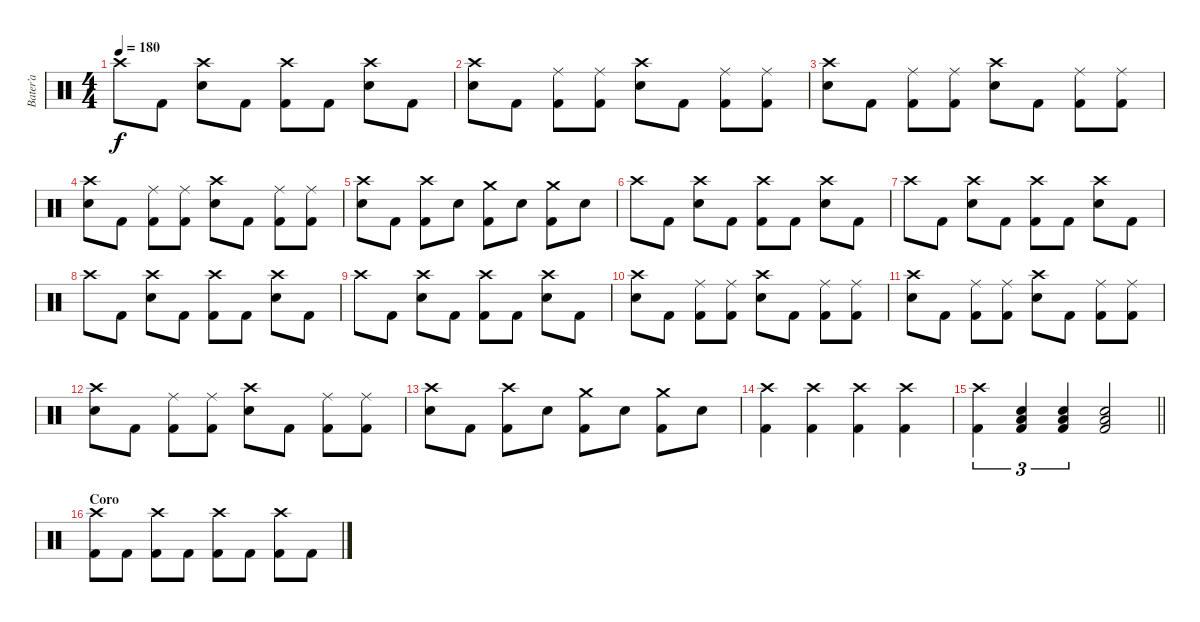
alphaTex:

\track ("Bater’a" "Bater’a") {instrument percussion bank 211}
\staff {score}
\articulation defaults
\ts (4 4)
\tempo 180
\clef neutral
\ks c "Crash high (hit)".8{dy f} "Kick (hit) 2".8
("Crash high (hit)" "Electric Snare (hit)").8 "Kick (hit) 2".8 ("Crash high (hit)" "Kick (hit) 2").8 "Kick (hit) 2".8 ("Crash high (hit)" "Electric Snare (hit)").8 "Kick (hit) 2".8 |
("Crash high (hit)" "Electric Snare (hit)").8 "Kick (hit) 2".8 ("Ride (middle)" "Kick (hit) 2").8 ("Ride (middle)" "Kick (hit) 2").8 ("Crash high (hit)" "Electric Snare (hit)").8 "Kick (hit) 2".8 ("Ride (middle)" "Kick (hit) 2").8 ("Ride (middle)" "Kick (hit) 2").8 |
("Crash high (hit)" "Electric Snare (hit)").8 "Kick (hit) 2".8 ("Ride (middle)" "Kick (hit) 2").8 ("Ride (middle)" "Kick (hit) 2").8 ("Crash high (hit)" "Electric Snare (hit)").8 "Kick (hit) 2".8 ("Ride (middle)" "Kick (hit) 2").8 ("Ride (middle)" "Kick (hit) 2").8 |
("Crash high (hit)" "Electric Snare (hit)").8 "Kick (hit) 2".8 ("Ride (middle)" "Kick (hit) 2").8 ("Ride (middle)" "Kick (hit) 2").8 ("Crash high (hit)" "Electric Snare (hit)").8 "Kick (hit) 2".8 ("Ride (middle)" "Kick (hit) 2").8 ("Ride (middle)" "Kick (hit) 2").8 |
("Crash high (hit)" "Electric Snare (hit)").8 "Kick (hit) 2".8 ("Crash high (hit)" "Kick (hit) 2").8 "Electric Snare (hit)".8 ("Crash medium (hit)" "Kick (hit) 2").8 "Electric Snare (hit)".8 ("Crash medium (hit)" "Kick (hit) 2").8 "Electric Snare (hit)".8 |
"Crash high (hit)".8 "Kick (hit) 2".8 ("Crash high (hit)" "Electric Snare (hit)").8 "Kick (hit) 2".8 ("Crash high (hit)" "Kick (hit) 2").8 "Kick (hit) 2".8 ("Crash high (hit)" "Electric Snare (hit)").8 "Kick (hit) 2".8 |
"Crash high (hit)".8 "Kick (hit) 2".8 ("Crash high (hit)" "Electric Snare (hit)").8 "Kick (hit) 2".8 ("Crash high (hit)" "Kick (hit) 2").8 "Kick (hit) 2".8 ("Crash high (hit)" "Electric Snare (hit)").8 "Kick (hit) 2".8 |
"Crash high (hit)".8 "Kick (hit) 2".8 ("Crash high (hit)" "Electric Snare (hit)").8 "Kick (hit) 2".8 ("Crash high (hit)" "Kick (hit) 2").8 "Kick (hit) 2".8 ("Crash high (hit)" "Electric Snare (hit)").8 "Kick (hit) 2".8 |
"Crash high (hit)".8 "Kick (hit) 2".8 ("Crash high (hit)" "Electric Snare (hit)").8 "Kick (hit) 2".8 ("Crash high (hit)" "Kick (hit) 2").8 "Kick (hit) 2".8 ("Crash high (hit)" "Electric Snare (hit)").8 "Kick (hit) 2".8 |
("Crash high (hit)" "Electric Snare (hit)").8 "Kick (hit) 2".8 ("Ride (middle)" "Kick (hit) 2").8 ("Ride (middle)" "Kick (hit) 2").8 ("Crash high (hit)" "Electric Snare (hit)").8 "Kick (hit) 2".8 ("Ride (middle)" "Kick (hit) 2").8 ("Ride (middle)" "Kick (hit) 2").8 |
("Crash high (hit)" "Electric Snare (hit)").8 "Kick (hit) 2".8 ("Ride (middle)" "Kick (hit) 2").8 ("Ride (middle)" "Kick (hit) 2").8 ("Crash high (hit)" "Electric Snare (hit)").8 "Kick (hit) 2".8 ("Ride (middle)" "Kick (hit) 2").8 ("Ride (middle)" "Kick (hit) 2").8 |
("Crash high (hit)" "Electric Snare (hit)").8 "Kick (hit) 2".8 ("Ride (middle)" "Kick (hit) 2").8 ("Ride (middle)" "Kick (hit) 2").8 ("Crash high (hit)" "Electric Snare (hit)").8 "Kick (hit) 2".8 ("Ride (middle)" "Kick (hit) 2").8 ("Ride (middle)" "Kick (hit) 2").8 |
("Crash high (hit)" "Electric Snare (hit)").8 "Kick (hit) 2".8 ("Crash high (hit)" "Kick (hit) 2").8 "Electric Snare (hit)".8 ("Crash medium (hit)" "Kick (hit) 2").8 "Electric Snare (hit)".8 ("Crash medium (hit)" "Kick (hit) 2").8 "Electric Snare (hit)".8 |
("Crash high (hit)" "Kick (hit) 2").4 ("Crash high (hit)" "Kick (hit) 2").4 ("Crash high (hit)" "Kick (hit) 2").4 ("Crash high (hit)" "Kick (hit) 2").4 |
\barLineRight lightlight
("Crash high (hit)" "Kick (hit) 2").4{tu (3 2)} ("Electric Snare (hit)" "Low Floor Tom (hit)" "Kick (hit) 2").4{tu (3 2)} ("Electric Snare (hit)" "Low Floor Tom (hit)" "Kick (hit) 2").4{tu (3 2)} ("Electric Snare (hit)" "Low Floor Tom (hit)" "Kick (hit) 2").2 |
\section ("" "Coro")
("Crash high (hit)" "Kick (hit) 2").8 "Kick (hit) 2".8 ("Crash high (hit)" "Kick (hit) 2").8 "Kick (hit) 2".8 ("Crash high (hit)" "Kick (hit) 2").8 "Kick (hit) 2".8 ("Crash high (hit)" "Kick (hit) 2").8 "Kick (hit) 2".8
